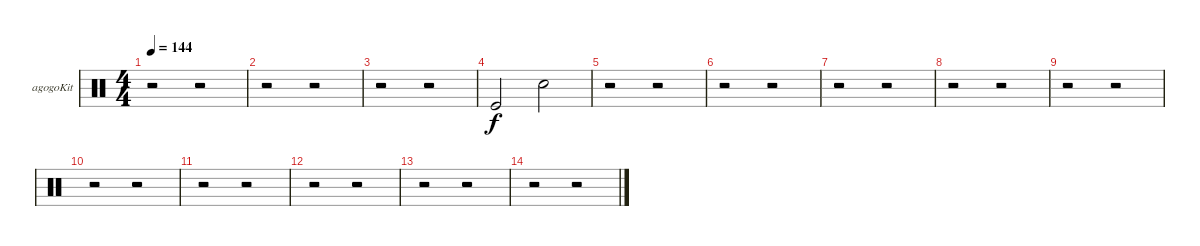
\bracketExtendMode groupsimilarinstruments
\firstSystemTrackNameOrientation horizontal
\otherSystemsTrackNameOrientation horizontal
\track ("Agogo" "agogoKit") {instrument percussion}
\staff {score}
\articulation defaults
\ts (4 4)
\tempo 144
\clef neutral
\ks c
r.2{dy f} r.2 |
r.2 r.2 |
r.2 r.2 |
"Kick (hit)".2 "Snare (hit) 2".2 |
r.2 r.2 |
r.2 r.2 |
r.2 r.2 |
r.2 r.2 |
r.2 r.2 |
r.2 r.2 |
r.2 r.2 |
r.2 r.2 |
r.2 r.2 |
r.2 r.2
